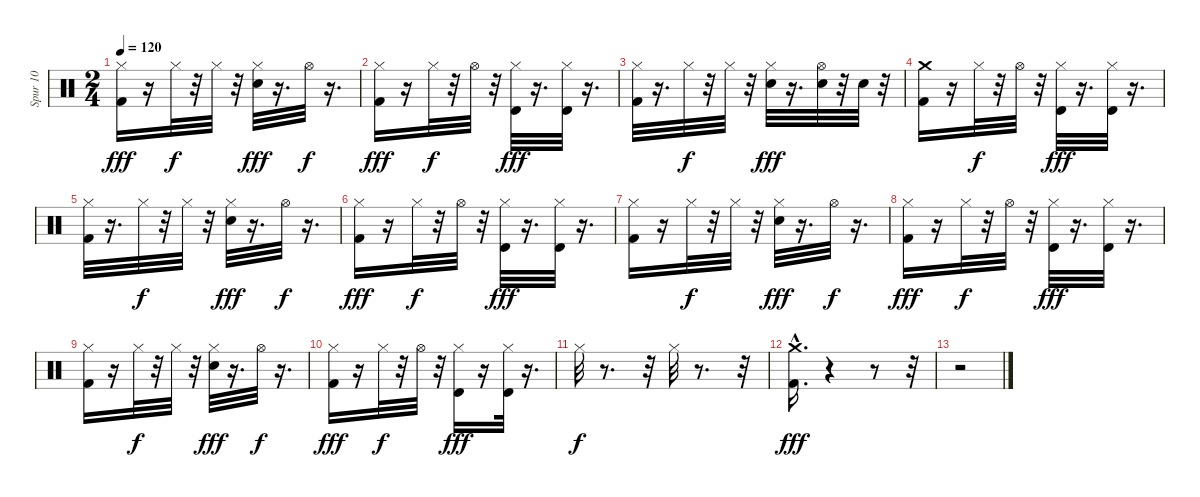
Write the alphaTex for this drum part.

\track ("Spur 10" "Spur 10") {instrument percussion}
\staff {score}
\articulation defaults
\ts (2 4)
\tempo 120
\clef neutral
\ks c
("Kick (hit) 2" "Hi-Hat (closed)").16{dy fff} r.16 "Hi-Hat (closed)".32{dy f} r.32 "Hi-Hat (closed)".32 r.32 ("Electric Snare (hit)" "Hi-Hat (closed)").32{dy fff} r.16{d} "Hi-Hat (open)".32{dy f} r.16{d} |
("Kick (hit) 2" "Hi-Hat (closed)").16{dy fff} r.16 "Hi-Hat (closed)".32{dy f} r.32 "Hi-Hat (open)".32 r.32 ("Timbale high (hit)" "Hi-Hat (closed)").32{dy fff} r.16{d} ("Timbale high (hit)" "Hi-Hat (closed)").32 r.16{d} |
("Kick (hit) 2" "Hi-Hat (closed)").32 r.16{d} "Hi-Hat (closed)".32{dy f} r.32 "Hi-Hat (closed)".32 r.32 ("Electric Snare (hit)" "Hi-Hat (closed)").32{dy fff} r.16{d} ("Electric Snare (hit)" "Hi-Hat (open)").32 r.32 "Electric Snare (hit)".32 r.32 |
("Kick (hit) 2" "Crash medium (hit)").16 r.16 "Hi-Hat (closed)".32{dy f} r.32 "Hi-Hat (open)".32 r.32 ("Timbale high (hit)" "Hi-Hat (closed)").32{dy fff} r.16{d} ("Timbale high (hit)" "Hi-Hat (closed)").32 r.16{d} |
("Kick (hit) 2" "Hi-Hat (closed)").32 r.16{d} "Hi-Hat (closed)".32{dy f} r.32 "Hi-Hat (closed)".32 r.32 ("Electric Snare (hit)" "Hi-Hat (closed)").32{dy fff} r.16{d} "Hi-Hat (open)".32{dy f} r.16{d} |
("Kick (hit) 2" "Hi-Hat (closed)").16{dy fff} r.16 "Hi-Hat (closed)".32{dy f} r.32 "Hi-Hat (open)".32 r.32 ("Timbale high (hit)" "Hi-Hat (closed)").32{dy fff} r.16{d} ("Timbale high (hit)" "Hi-Hat (closed)").32 r.16{d} |
("Kick (hit) 2" "Hi-Hat (closed)").16 r.16 "Hi-Hat (closed)".32{dy f} r.32 "Hi-Hat (closed)".32 r.32 ("Electric Snare (hit)" "Hi-Hat (closed)").32{dy fff} r.16{d} "Hi-Hat (open)".32{dy f} r.16{d} |
("Kick (hit) 2" "Hi-Hat (closed)").16{dy fff} r.16 "Hi-Hat (closed)".32{dy f} r.32 "Hi-Hat (open)".32 r.32 ("Timbale high (hit)" "Hi-Hat (closed)").32{dy fff} r.16{d} ("Timbale high (hit)" "Hi-Hat (closed)").32 r.16{d} |
("Kick (hit) 2" "Hi-Hat (closed)").16 r.16 "Hi-Hat (closed)".32{dy f} r.32 "Hi-Hat (closed)".32 r.32 ("Electric Snare (hit)" "Hi-Hat (closed)").32{dy fff} r.16{d} "Hi-Hat (open)".32{dy f} r.16{d} |
("Kick (hit) 2" "Hi-Hat (closed)").16{dy fff} r.16 "Hi-Hat (closed)".32{dy f} r.32 "Hi-Hat (open)".32 r.32 ("Timbale high (hit)" "Hi-Hat (closed)").16{dy fff} r.16 ("Timbale high (hit)" "Hi-Hat (closed)").32 r.16{d} |
"Hi-Hat (closed)".32{dy f} r.8{d} r.32 "Hi-Hat (closed)".32 r.8{d} r.32 |
("Kick (hit) 2"{hac} "Crash medium (hit)").16{d dy fff} r.4 r.8 r.32 |
r.2
